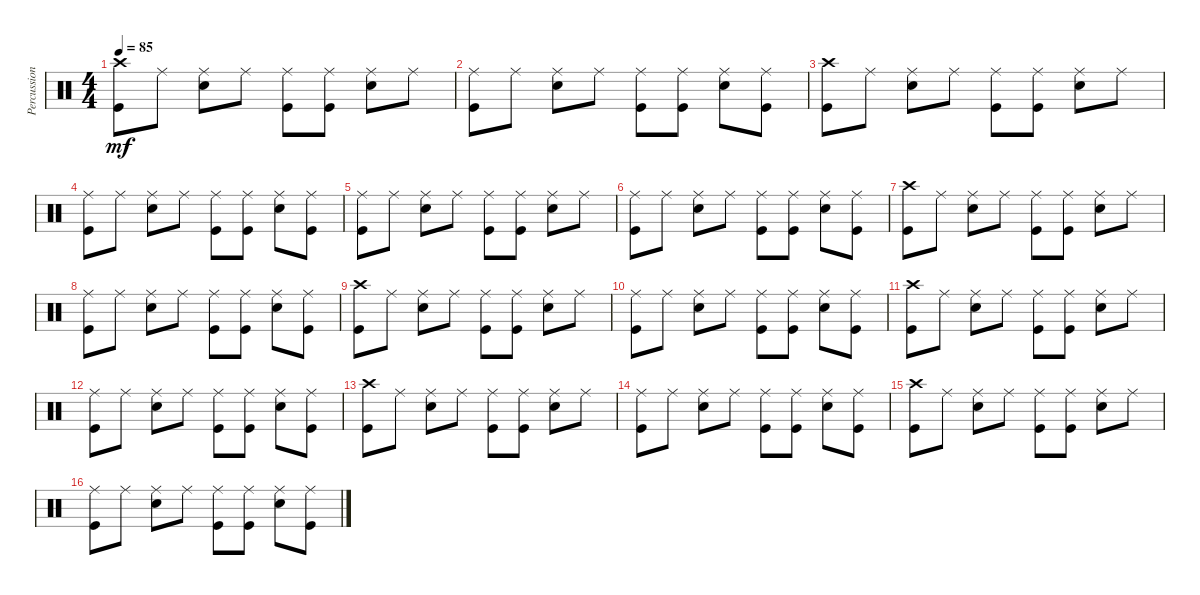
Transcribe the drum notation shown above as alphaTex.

\track ("Percussion" "Percussion") {instrument percussion}
\staff {score}
\articulation defaults
\ts (4 4)
\tempo 85
\clef neutral
\ks c
("Crash high (hit)" "Kick (hit)").8{dy mf} "Ride (middle)".8 ("Ride (middle)" "Snare (hit) 2").8 "Ride (middle)".8 ("Ride (middle)" "Kick (hit)").8 ("Ride (middle)" "Kick (hit)").8 ("Ride (middle)" "Snare (hit) 2").8 "Ride (middle)".8 |
("Ride (middle)" "Kick (hit)").8 "Ride (middle)".8 ("Ride (middle)" "Snare (hit) 2").8 "Ride (middle)".8 ("Ride (middle)" "Kick (hit)").8 ("Ride (middle)" "Kick (hit)").8 ("Ride (middle)" "Snare (hit) 2").8 ("Ride (middle)" "Kick (hit)").8 |
("Crash high (hit)" "Kick (hit)").8 "Ride (middle)".8 ("Ride (middle)" "Snare (hit) 2").8 "Ride (middle)".8 ("Ride (middle)" "Kick (hit)").8 ("Ride (middle)" "Kick (hit)").8 ("Ride (middle)" "Snare (hit) 2").8 "Ride (middle)".8 |
("Ride (middle)" "Kick (hit)").8 "Ride (middle)".8 ("Ride (middle)" "Snare (hit) 2").8 "Ride (middle)".8 ("Ride (middle)" "Kick (hit)").8 ("Ride (middle)" "Kick (hit)").8 ("Ride (middle)" "Snare (hit) 2").8 ("Ride (middle)" "Kick (hit)").8 |
("Ride (middle)" "Kick (hit)").8 "Ride (middle)".8 ("Ride (middle)" "Snare (hit) 2").8 "Ride (middle)".8 ("Ride (middle)" "Kick (hit)").8 ("Ride (middle)" "Kick (hit)").8 ("Ride (middle)" "Snare (hit) 2").8 "Ride (middle)".8 |
("Ride (middle)" "Kick (hit)").8 "Ride (middle)".8 ("Ride (middle)" "Snare (hit) 2").8 "Ride (middle)".8 ("Ride (middle)" "Kick (hit)").8 ("Ride (middle)" "Kick (hit)").8 ("Ride (middle)" "Snare (hit) 2").8 ("Ride (middle)" "Kick (hit)").8 |
("Crash high (hit)" "Kick (hit)").8 "Ride (middle)".8 ("Ride (middle)" "Snare (hit) 2").8 "Ride (middle)".8 ("Ride (middle)" "Kick (hit)").8 ("Ride (middle)" "Kick (hit)").8 ("Ride (middle)" "Snare (hit) 2").8 "Ride (middle)".8 |
("Ride (middle)" "Kick (hit)").8 "Ride (middle)".8 ("Ride (middle)" "Snare (hit) 2").8 "Ride (middle)".8 ("Ride (middle)" "Kick (hit)").8 ("Ride (middle)" "Kick (hit)").8 ("Ride (middle)" "Snare (hit) 2").8 ("Ride (middle)" "Kick (hit)").8 |
("Crash high (hit)" "Kick (hit)").8 "Ride (middle)".8 ("Ride (middle)" "Snare (hit) 2").8 "Ride (middle)".8 ("Ride (middle)" "Kick (hit)").8 ("Ride (middle)" "Kick (hit)").8 ("Ride (middle)" "Snare (hit) 2").8 "Ride (middle)".8 |
("Ride (middle)" "Kick (hit)").8 "Ride (middle)".8 ("Ride (middle)" "Snare (hit) 2").8 "Ride (middle)".8 ("Ride (middle)" "Kick (hit)").8 ("Ride (middle)" "Kick (hit)").8 ("Ride (middle)" "Snare (hit) 2").8 ("Ride (middle)" "Kick (hit)").8 |
("Crash high (hit)" "Kick (hit)").8 "Ride (middle)".8 ("Ride (middle)" "Snare (hit) 2").8 "Ride (middle)".8 ("Ride (middle)" "Kick (hit)").8 ("Ride (middle)" "Kick (hit)").8 ("Ride (middle)" "Snare (hit) 2").8 "Ride (middle)".8 |
("Ride (middle)" "Kick (hit)").8 "Ride (middle)".8 ("Ride (middle)" "Snare (hit) 2").8 "Ride (middle)".8 ("Ride (middle)" "Kick (hit)").8 ("Ride (middle)" "Kick (hit)").8 ("Ride (middle)" "Snare (hit) 2").8 ("Ride (middle)" "Kick (hit)").8 |
("Crash high (hit)" "Kick (hit)").8 "Ride (middle)".8 ("Ride (middle)" "Snare (hit) 2").8 "Ride (middle)".8 ("Ride (middle)" "Kick (hit)").8 ("Ride (middle)" "Kick (hit)").8 ("Ride (middle)" "Snare (hit) 2").8 "Ride (middle)".8 |
("Ride (middle)" "Kick (hit)").8 "Ride (middle)".8 ("Ride (middle)" "Snare (hit) 2").8 "Ride (middle)".8 ("Ride (middle)" "Kick (hit)").8 ("Ride (middle)" "Kick (hit)").8 ("Ride (middle)" "Snare (hit) 2").8 ("Ride (middle)" "Kick (hit)").8 |
("Crash high (hit)" "Kick (hit)").8 "Ride (middle)".8 ("Ride (middle)" "Snare (hit) 2").8 "Ride (middle)".8 ("Ride (middle)" "Kick (hit)").8 ("Ride (middle)" "Kick (hit)").8 ("Ride (middle)" "Snare (hit) 2").8 "Ride (middle)".8 |
("Ride (middle)" "Kick (hit)").8 "Ride (middle)".8 ("Ride (middle)" "Snare (hit) 2").8 "Ride (middle)".8 ("Ride (middle)" "Kick (hit)").8 ("Ride (middle)" "Kick (hit)").8 ("Ride (middle)" "Snare (hit) 2").8 ("Ride (middle)" "Kick (hit)").8
